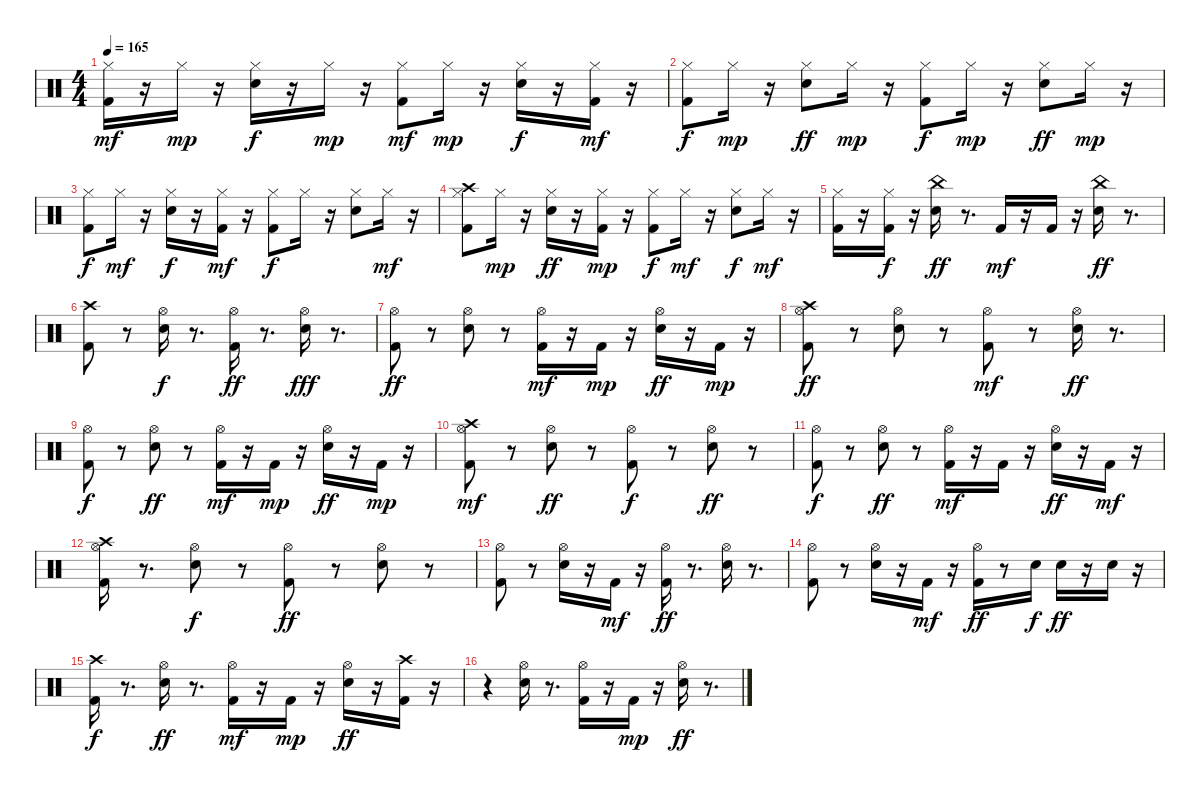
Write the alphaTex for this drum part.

\track "" {instrument percussion}
\staff {score}
\articulation defaults
\ts (4 4)
\tempo 165
\clef neutral
\ks c
("Hi-Hat (closed)" "Kick (hit) 2").16{dy mf} r.16 "Hi-Hat (closed)".16{dy mp} r.16 ("Electric Snare (hit)" "Hi-Hat (closed)").16{dy f} r.16 "Hi-Hat (closed)".16{dy mp} r.16 ("Hi-Hat (closed)" "Kick (hit) 2").8{dy mf} "Hi-Hat (closed)".16{dy mp} r.16 ("Hi-Hat (closed)" "Electric Snare (hit)").16{dy f} r.16 ("Hi-Hat (closed)" "Kick (hit) 2").16{dy mf} r.16 |
("Hi-Hat (closed)" "Kick (hit) 2").8{dy f} "Hi-Hat (closed)".16{dy mp} r.16 ("Hi-Hat (closed)" "Electric Snare (hit)").8{dy ff} "Hi-Hat (closed)".16{dy mp} r.16 ("Kick (hit) 2" "Hi-Hat (closed)").8{dy f} "Hi-Hat (closed)".16{dy mp} r.16 ("Electric Snare (hit)" "Hi-Hat (closed)").8{dy ff} "Hi-Hat (closed)".16{dy mp} r.16 |
("Kick (hit) 2" "Hi-Hat (closed)").8{dy f} "Hi-Hat (closed)".16{dy mf} r.16 ("Electric Snare (hit)" "Hi-Hat (closed)").16{dy f} r.16 ("Kick (hit) 2" "Hi-Hat (closed)").16{dy mf} r.16 ("Kick (hit) 2" "Hi-Hat (closed)").8{dy f} "Hi-Hat (closed)".16 r.16 ("Electric Snare (hit)" "Hi-Hat (closed)").8 "Hi-Hat (closed)".16{dy mf} r.16 |
("Kick (hit) 2" "Hi-Hat (closed)" "Crash high (hit)").8 "Hi-Hat (closed)".16{dy mp} r.16 ("Hi-Hat (closed)" "Electric Snare (hit)").16{dy ff} r.16 ("Hi-Hat (closed)" "Kick (hit) 2").16{dy mp} r.16 ("Hi-Hat (closed)" "Kick (hit) 2").8{dy f} "Hi-Hat (closed)".16{dy mf} r.16 ("Electric Snare (hit)" "Hi-Hat (closed)").8{dy f} "Hi-Hat (closed)".16{dy mf} r.16 |
("Hi-Hat (closed)" "Kick (hit) 2").16 r.16 ("Hi-Hat (closed)" "Kick (hit) 2").16{dy f} r.16 ("China (hit)" "Electric Snare (hit)").16{dy ff} r.8{d} "Kick (hit) 2".16{dy mf} r.16 "Kick (hit) 2".16 r.16 ("Electric Snare (hit)" "China (hit)").16{dy ff} r.8{d} |
("Kick (hit) 2" "Crash high (hit)").8 r.8 ("Hi-Hat (open)" "Electric Snare (hit)").16{dy f} r.8{d} ("Kick (hit) 2" "Hi-Hat (open)").16{dy ff} r.8{d} ("Electric Snare (hit)" "Hi-Hat (open)").16{dy fff} r.8{d} |
("Kick (hit) 2" "Hi-Hat (open)").8{dy ff} r.8 ("Electric Snare (hit)" "Hi-Hat (open)").8 r.8 ("Kick (hit) 2" "Hi-Hat (open)").16{dy mf} r.16 "Kick (hit) 2".16{dy mp} r.16 ("Hi-Hat (open)" "Electric Snare (hit)").16{dy ff} r.16 "Kick (hit) 2".16{dy mp} r.16 |
("Kick (hit) 2" "Crash high (hit)" "Hi-Hat (open)").8{dy ff} r.8 ("Electric Snare (hit)" "Hi-Hat (open)").8 r.8 ("Kick (hit) 2" "Hi-Hat (open)").8{dy mf} r.8 ("Hi-Hat (open)" "Electric Snare (hit)").16{dy ff} r.8{d} |
("Hi-Hat (open)" "Kick (hit) 2").8{dy f} r.8 ("Electric Snare (hit)" "Hi-Hat (open)").8{dy ff} r.8 ("Hi-Hat (open)" "Kick (hit) 2").16{dy mf} r.16 "Kick (hit) 2".16{dy mp} r.16 ("Electric Snare (hit)" "Hi-Hat (open)").16{dy ff} r.16 "Kick (hit) 2".16{dy mp} r.16 |
("Hi-Hat (open)" "Crash high (hit)" "Kick (hit) 2").8{dy mf} r.8 ("Hi-Hat (open)" "Electric Snare (hit)").8{dy ff} r.8 ("Hi-Hat (open)" "Kick (hit) 2").8{dy f} r.8 ("Hi-Hat (open)" "Electric Snare (hit)").8{dy ff} r.8 |
("Hi-Hat (open)" "Kick (hit) 2").8{dy f} r.8 ("Electric Snare (hit)" "Hi-Hat (open)").8{dy ff} r.8 ("Hi-Hat (open)" "Kick (hit) 2").16{dy mf} r.16 "Kick (hit) 2".16 r.16 ("Hi-Hat (open)" "Electric Snare (hit)").16{dy ff} r.16 "Kick (hit) 2".16{dy mf} r.16 |
("Hi-Hat (open)" "Crash high (hit)" "Kick (hit) 2").16 r.8{d} ("Electric Snare (hit)" "Hi-Hat (open)").8{dy f} r.8 ("Hi-Hat (open)" "Kick (hit) 2").8{dy ff} r.8 ("Electric Snare (hit)" "Hi-Hat (open)").8 r.8 |
("Hi-Hat (open)" "Kick (hit) 2").8 r.8 ("Electric Snare (hit)" "Hi-Hat (open)").16 r.16 "Kick (hit) 2".16{dy mf} r.16 ("Kick (hit) 2" "Hi-Hat (open)").16{dy ff} r.8{d} ("Hi-Hat (open)" "Electric Snare (hit)").16 r.8{d} |
("Hi-Hat (open)" "Kick (hit) 2").8 r.8 ("Hi-Hat (open)" "Electric Snare (hit)").16 r.16 "Kick (hit) 2".16{dy mf} r.16 ("Kick (hit) 2" "Hi-Hat (open)").16{dy ff} r.8 "Electric Snare (hit)".16{dy f} "Electric Snare (hit)".16{dy ff} r.16 "Electric Snare (hit)".16 r.16 |
("Crash high (hit)" "Kick (hit) 2").16{dy f} r.8{d} ("Electric Snare (hit)" "Hi-Hat (open)").16{dy ff} r.8{d} ("Hi-Hat (open)" "Kick (hit) 2").16{dy mf} r.16 "Kick (hit) 2".16{dy mp} r.16 ("Hi-Hat (open)" "Electric Snare (hit)").16{dy ff} r.16 ("Kick (hit) 2" "Crash high (hit)").16 r.16 |
r.4 ("Hi-Hat (open)" "Electric Snare (hit)").16 r.8{d} ("Kick (hit) 2" "Hi-Hat (open)").16 r.16 "Kick (hit) 2".16{dy mp} r.16 ("Electric Snare (hit)" "Hi-Hat (open)").16{dy ff} r.8{d}
